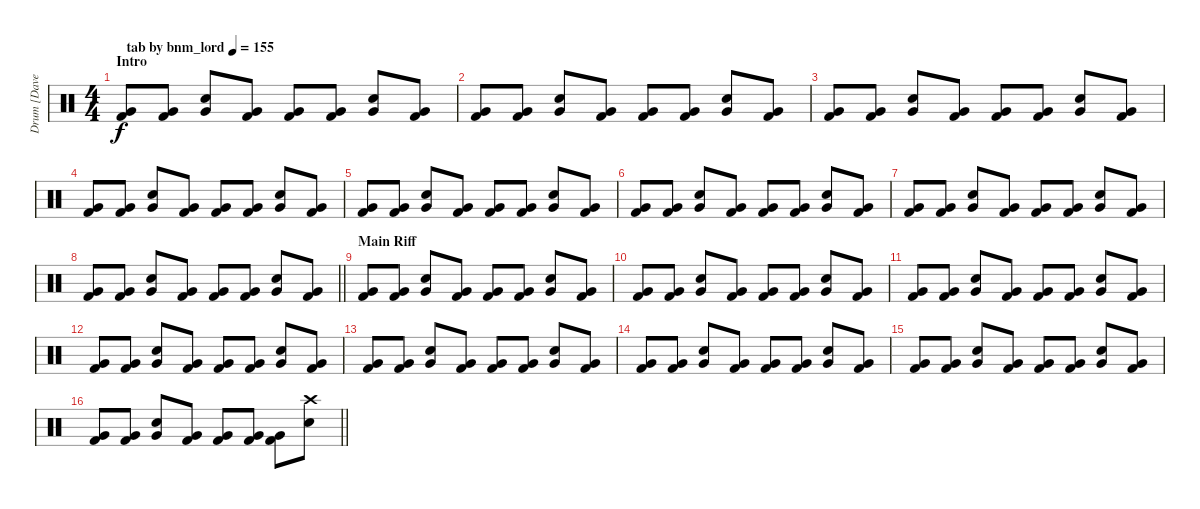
\track ("Drum [Dave Grohl]" "Drum [Dave") {instrument percussion}
\staff {score}
\articulation defaults
\ts (4 4)
\section ("" "Intro")
\tempo (155 "tab by bnm_lord")
\clef neutral
\ks c
("Very Low Tom (hit)" "Kick (hit) 2").8{dy f} ("Very Low Tom (hit)" "Kick (hit) 2").8 ("Very Low Tom (hit)" "Snare (hit) 2").8 ("Very Low Tom (hit)" "Kick (hit) 2").8 ("Very Low Tom (hit)" "Kick (hit) 2").8 ("Very Low Tom (hit)" "Kick (hit) 2").8 ("Very Low Tom (hit)" "Snare (hit) 2").8 ("Very Low Tom (hit)" "Kick (hit) 2").8 |
("Very Low Tom (hit)" "Kick (hit) 2").8 ("Very Low Tom (hit)" "Kick (hit) 2").8 ("Very Low Tom (hit)" "Snare (hit) 2").8 ("Very Low Tom (hit)" "Kick (hit) 2").8 ("Very Low Tom (hit)" "Kick (hit) 2").8 ("Very Low Tom (hit)" "Kick (hit) 2").8 ("Very Low Tom (hit)" "Snare (hit) 2").8 ("Very Low Tom (hit)" "Kick (hit) 2").8 |
("Very Low Tom (hit)" "Kick (hit) 2").8 ("Very Low Tom (hit)" "Kick (hit) 2").8 ("Very Low Tom (hit)" "Snare (hit) 2").8 ("Very Low Tom (hit)" "Kick (hit) 2").8 ("Very Low Tom (hit)" "Kick (hit) 2").8 ("Very Low Tom (hit)" "Kick (hit) 2").8 ("Very Low Tom (hit)" "Snare (hit) 2").8 ("Very Low Tom (hit)" "Kick (hit) 2").8 |
("Very Low Tom (hit)" "Kick (hit) 2").8 ("Very Low Tom (hit)" "Kick (hit) 2").8 ("Very Low Tom (hit)" "Snare (hit) 2").8 ("Very Low Tom (hit)" "Kick (hit) 2").8 ("Very Low Tom (hit)" "Kick (hit) 2").8 ("Very Low Tom (hit)" "Kick (hit) 2").8 ("Very Low Tom (hit)" "Snare (hit) 2").8 ("Very Low Tom (hit)" "Kick (hit) 2").8 |
("Very Low Tom (hit)" "Kick (hit) 2").8 ("Very Low Tom (hit)" "Kick (hit) 2").8 ("Very Low Tom (hit)" "Snare (hit) 2").8 ("Very Low Tom (hit)" "Kick (hit) 2").8 ("Very Low Tom (hit)" "Kick (hit) 2").8 ("Very Low Tom (hit)" "Kick (hit) 2").8 ("Very Low Tom (hit)" "Snare (hit) 2").8 ("Very Low Tom (hit)" "Kick (hit) 2").8 |
("Very Low Tom (hit)" "Kick (hit) 2").8 ("Very Low Tom (hit)" "Kick (hit) 2").8 ("Very Low Tom (hit)" "Snare (hit) 2").8 ("Very Low Tom (hit)" "Kick (hit) 2").8 ("Very Low Tom (hit)" "Kick (hit) 2").8 ("Very Low Tom (hit)" "Kick (hit) 2").8 ("Very Low Tom (hit)" "Snare (hit) 2").8 ("Very Low Tom (hit)" "Kick (hit) 2").8 |
("Very Low Tom (hit)" "Kick (hit) 2").8 ("Very Low Tom (hit)" "Kick (hit) 2").8 ("Very Low Tom (hit)" "Snare (hit) 2").8 ("Very Low Tom (hit)" "Kick (hit) 2").8 ("Very Low Tom (hit)" "Kick (hit) 2").8 ("Very Low Tom (hit)" "Kick (hit) 2").8 ("Very Low Tom (hit)" "Snare (hit) 2").8 ("Very Low Tom (hit)" "Kick (hit) 2").8 |
\barLineRight lightlight
("Very Low Tom (hit)" "Kick (hit) 2").8 ("Very Low Tom (hit)" "Kick (hit) 2").8 ("Very Low Tom (hit)" "Snare (hit) 2").8 ("Very Low Tom (hit)" "Kick (hit) 2").8 ("Very Low Tom (hit)" "Kick (hit) 2").8 ("Very Low Tom (hit)" "Kick (hit) 2").8 ("Very Low Tom (hit)" "Snare (hit) 2").8 ("Very Low Tom (hit)" "Kick (hit) 2").8 |
\section ("" "Main Riff")
("Very Low Tom (hit)" "Kick (hit) 2").8 ("Very Low Tom (hit)" "Kick (hit) 2").8 ("Very Low Tom (hit)" "Snare (hit) 2").8 ("Very Low Tom (hit)" "Kick (hit) 2").8 ("Very Low Tom (hit)" "Kick (hit) 2").8 ("Very Low Tom (hit)" "Kick (hit) 2").8 ("Very Low Tom (hit)" "Snare (hit) 2").8 ("Very Low Tom (hit)" "Kick (hit) 2").8 |
("Very Low Tom (hit)" "Kick (hit) 2").8 ("Very Low Tom (hit)" "Kick (hit) 2").8 ("Very Low Tom (hit)" "Snare (hit) 2").8 ("Very Low Tom (hit)" "Kick (hit) 2").8 ("Very Low Tom (hit)" "Kick (hit) 2").8 ("Very Low Tom (hit)" "Kick (hit) 2").8 ("Very Low Tom (hit)" "Snare (hit) 2").8 ("Very Low Tom (hit)" "Kick (hit) 2").8 |
("Very Low Tom (hit)" "Kick (hit) 2").8 ("Very Low Tom (hit)" "Kick (hit) 2").8 ("Very Low Tom (hit)" "Snare (hit) 2").8 ("Very Low Tom (hit)" "Kick (hit) 2").8 ("Very Low Tom (hit)" "Kick (hit) 2").8 ("Very Low Tom (hit)" "Kick (hit) 2").8 ("Very Low Tom (hit)" "Snare (hit) 2").8 ("Very Low Tom (hit)" "Kick (hit) 2").8 |
("Very Low Tom (hit)" "Kick (hit) 2").8 ("Very Low Tom (hit)" "Kick (hit) 2").8 ("Very Low Tom (hit)" "Snare (hit) 2").8 ("Very Low Tom (hit)" "Kick (hit) 2").8 ("Very Low Tom (hit)" "Kick (hit) 2").8 ("Very Low Tom (hit)" "Kick (hit) 2").8 ("Very Low Tom (hit)" "Snare (hit) 2").8 ("Very Low Tom (hit)" "Kick (hit) 2").8 |
("Very Low Tom (hit)" "Kick (hit) 2").8 ("Very Low Tom (hit)" "Kick (hit) 2").8 ("Very Low Tom (hit)" "Snare (hit) 2").8 ("Very Low Tom (hit)" "Kick (hit) 2").8 ("Very Low Tom (hit)" "Kick (hit) 2").8 ("Very Low Tom (hit)" "Kick (hit) 2").8 ("Very Low Tom (hit)" "Snare (hit) 2").8 ("Very Low Tom (hit)" "Kick (hit) 2").8 |
("Very Low Tom (hit)" "Kick (hit) 2").8 ("Very Low Tom (hit)" "Kick (hit) 2").8 ("Very Low Tom (hit)" "Snare (hit) 2").8 ("Very Low Tom (hit)" "Kick (hit) 2").8 ("Very Low Tom (hit)" "Kick (hit) 2").8 ("Very Low Tom (hit)" "Kick (hit) 2").8 ("Very Low Tom (hit)" "Snare (hit) 2").8 ("Very Low Tom (hit)" "Kick (hit) 2").8 |
("Very Low Tom (hit)" "Kick (hit) 2").8 ("Very Low Tom (hit)" "Kick (hit) 2").8 ("Very Low Tom (hit)" "Snare (hit) 2").8 ("Very Low Tom (hit)" "Kick (hit) 2").8 ("Very Low Tom (hit)" "Kick (hit) 2").8 ("Very Low Tom (hit)" "Kick (hit) 2").8 ("Very Low Tom (hit)" "Snare (hit) 2").8 ("Very Low Tom (hit)" "Kick (hit) 2").8 |
\barLineRight lightlight
("Very Low Tom (hit)" "Kick (hit) 2").8 ("Very Low Tom (hit)" "Kick (hit) 2").8 ("Very Low Tom (hit)" "Snare (hit) 2").8 ("Very Low Tom (hit)" "Kick (hit) 2").8 ("Very Low Tom (hit)" "Kick (hit) 2").8 ("Very Low Tom (hit)" "Kick (hit) 2").8 ("Very Low Tom (hit)" "Kick (hit) 2").8 ("Crash high (hit)" "Snare (hit) 2").8{volume 16}
